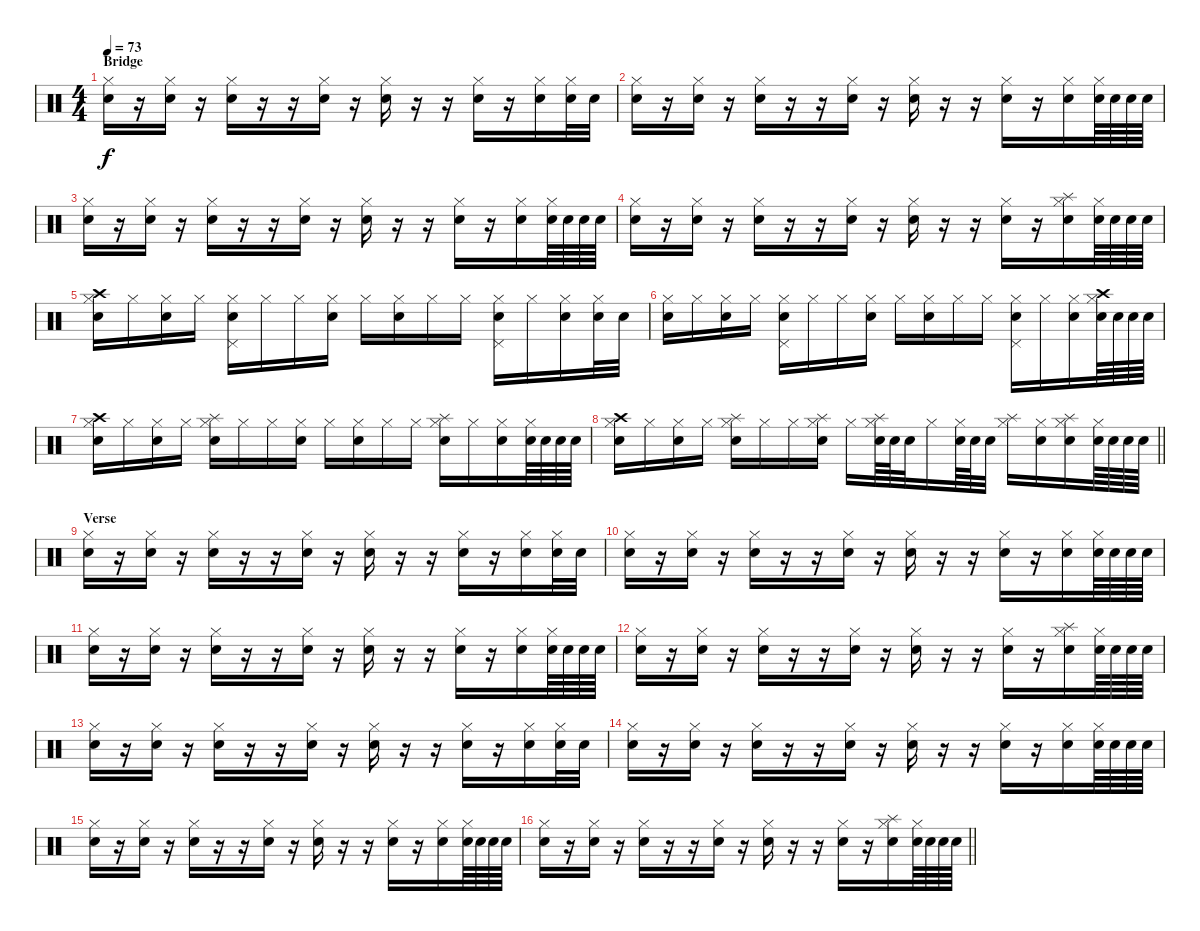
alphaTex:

\track "" {instrument percussion}
\staff {score}
\articulation defaults
\ts (4 4)
\section ("" "Bridge")
\tempo 73
\clef neutral
\ks c
("Hi-Hat (closed)" "Snare (hit) 2").16{dy f} r.16 ("Hi-Hat (closed)" "Snare (hit) 2").16 r.16 ("Hi-Hat (closed)" "Snare (hit) 2").16 r.16 r.16 ("Hi-Hat (closed)" "Snare (hit) 2").16 r.16 ("Hi-Hat (closed)" "Snare (hit) 2").16 r.16 r.16 ("Hi-Hat (closed)" "Snare (hit) 2").16 r.16 ("Hi-Hat (closed)" "Snare (hit) 2").16 ("Hi-Hat (closed)" "Snare (hit) 2").32 "Snare (hit) 2".32 |
("Hi-Hat (closed)" "Snare (hit) 2").16 r.16 ("Hi-Hat (closed)" "Snare (hit) 2").16 r.16 ("Hi-Hat (closed)" "Snare (hit) 2").16 r.16 r.16 ("Hi-Hat (closed)" "Snare (hit) 2").16 r.16 ("Hi-Hat (closed)" "Snare (hit) 2").16 r.16 r.16 ("Hi-Hat (closed)" "Snare (hit) 2").16 r.16 ("Hi-Hat (closed)" "Snare (hit) 2").16 ("Hi-Hat (closed)" "Snare (hit) 2").64 "Snare (hit) 2".64 "Snare (hit) 2".64 "Snare (hit) 2".64 |
("Hi-Hat (closed)" "Snare (hit) 2").16 r.16 ("Hi-Hat (closed)" "Snare (hit) 2").16 r.16 ("Hi-Hat (closed)" "Snare (hit) 2").16 r.16 r.16 ("Hi-Hat (closed)" "Snare (hit) 2").16 r.16 ("Hi-Hat (closed)" "Snare (hit) 2").16 r.16 r.16 ("Hi-Hat (closed)" "Snare (hit) 2").16 r.16 ("Hi-Hat (closed)" "Snare (hit) 2").16 ("Hi-Hat (closed)" "Snare (hit) 2").64 "Snare (hit) 2".64 "Snare (hit) 2".64 "Snare (hit) 2".64 |
("Hi-Hat (closed)" "Snare (hit) 2").16 r.16 ("Hi-Hat (closed)" "Snare (hit) 2").16 r.16 ("Hi-Hat (closed)" "Snare (hit) 2").16 r.16 r.16 ("Hi-Hat (closed)" "Snare (hit) 2").16 r.16 ("Hi-Hat (closed)" "Snare (hit) 2").16 r.16 r.16 ("Hi-Hat (closed)" "Snare (hit) 2").16 r.16 ("Splash (hit)" "Hi-Hat (closed)" "Snare (hit) 2").16 ("Hi-Hat (closed)" "Snare (hit) 2").64 "Snare (hit) 2".64 "Snare (hit) 2".64 "Snare (hit) 2".64 |
("Crash high (hit)" "Hi-Hat (closed)" "Snare (hit) 2").16 "Hi-Hat (closed)".16 ("Hi-Hat (closed)" "Snare (hit) 2").16 "Hi-Hat (closed)".16 ("Pedal Hi-Hat (hit)" "Hi-Hat (closed)" "Snare (hit) 2").16 "Hi-Hat (closed)".16 "Hi-Hat (closed)".16 ("Hi-Hat (closed)" "Snare (hit) 2").16 "Hi-Hat (closed)".16 ("Hi-Hat (closed)" "Snare (hit) 2").16 "Hi-Hat (closed)".16 "Hi-Hat (closed)".16 ("Pedal Hi-Hat (hit)" "Hi-Hat (closed)" "Snare (hit) 2").16 "Hi-Hat (closed)".16 ("Hi-Hat (closed)" "Snare (hit) 2").16 ("Hi-Hat (closed)" "Snare (hit) 2").32 "Snare (hit) 2".32 |
("Hi-Hat (closed)" "Snare (hit) 2").16 "Hi-Hat (closed)".16 ("Hi-Hat (closed)" "Snare (hit) 2").16 "Hi-Hat (closed)".16 ("Pedal Hi-Hat (hit)" "Hi-Hat (closed)" "Snare (hit) 2").16 "Hi-Hat (closed)".16 "Hi-Hat (closed)".16 ("Hi-Hat (closed)" "Snare (hit) 2").16 "Hi-Hat (closed)".16 ("Hi-Hat (closed)" "Snare (hit) 2").16 "Hi-Hat (closed)".16 "Hi-Hat (closed)".16 ("Pedal Hi-Hat (hit)" "Hi-Hat (closed)" "Snare (hit) 2").16 "Hi-Hat (closed)".16 ("Hi-Hat (closed)" "Snare (hit) 2").16 ("Crash high (hit)" "Hi-Hat (closed)" "Snare (hit) 2").64 "Snare (hit) 2".64 "Snare (hit) 2".64 "Snare (hit) 2".64 |
("Crash high (hit)" "Hi-Hat (closed)" "Snare (hit) 2").16 "Hi-Hat (closed)".16 ("Hi-Hat (closed)" "Snare (hit) 2").16 "Hi-Hat (closed)".16 ("Splash (hit)" "Hi-Hat (closed)" "Snare (hit) 2").16 "Hi-Hat (closed)".16 "Hi-Hat (closed)".16 ("Hi-Hat (closed)" "Snare (hit) 2").16 "Hi-Hat (closed)".16 ("Hi-Hat (closed)" "Snare (hit) 2").16 "Hi-Hat (closed)".16 "Hi-Hat (closed)".16 ("Splash (hit)" "Hi-Hat (closed)" "Snare (hit) 2").16 "Hi-Hat (closed)".16 ("Hi-Hat (closed)" "Snare (hit) 2").16 ("Hi-Hat (closed)" "Snare (hit) 2").64 "Snare (hit) 2".64 "Snare (hit) 2".64 "Snare (hit) 2".64 |
\barLineRight lightlight
("Crash high (hit)" "Hi-Hat (closed)" "Snare (hit) 2").16 "Hi-Hat (closed)".16 ("Hi-Hat (closed)" "Snare (hit) 2").16 "Hi-Hat (closed)".16 ("Splash (hit)" "Hi-Hat (closed)" "Snare (hit) 2").16 "Hi-Hat (closed)".16 "Hi-Hat (closed)".16 ("Splash (hit)" "Hi-Hat (closed)" "Snare (hit) 2").16 "Hi-Hat (closed)".16 ("Splash (hit)" "Hi-Hat (closed)" "Snare (hit) 2").64 "Snare (hit) 2".64 "Snare (hit) 2".32 "Hi-Hat (closed)".16 ("Hi-Hat (closed)" "Snare (hit) 2").64 "Snare (hit) 2".64 "Snare (hit) 2".32 ("Splash (hit)" "Hi-Hat (closed)").16 ("Hi-Hat (closed)" "Snare (hit) 2").16 ("Splash (hit)" "Hi-Hat (closed)" "Snare (hit) 2").16 ("Hi-Hat (closed)" "Snare (hit) 2").64 "Snare (hit) 2".64 "Snare (hit) 2".64 "Snare (hit) 2".64 |
\section ("" "Verse")
("Hi-Hat (closed)" "Snare (hit) 2").16 r.16 ("Hi-Hat (closed)" "Snare (hit) 2").16 r.16 ("Hi-Hat (closed)" "Snare (hit) 2").16 r.16 r.16 ("Hi-Hat (closed)" "Snare (hit) 2").16 r.16 ("Hi-Hat (closed)" "Snare (hit) 2").16 r.16 r.16 ("Hi-Hat (closed)" "Snare (hit) 2").16 r.16 ("Hi-Hat (closed)" "Snare (hit) 2").16 ("Hi-Hat (closed)" "Snare (hit) 2").32 "Snare (hit) 2".32 |
("Hi-Hat (closed)" "Snare (hit) 2").16 r.16 ("Hi-Hat (closed)" "Snare (hit) 2").16 r.16 ("Hi-Hat (closed)" "Snare (hit) 2").16 r.16 r.16 ("Hi-Hat (closed)" "Snare (hit) 2").16 r.16 ("Hi-Hat (closed)" "Snare (hit) 2").16 r.16 r.16 ("Hi-Hat (closed)" "Snare (hit) 2").16 r.16 ("Hi-Hat (closed)" "Snare (hit) 2").16 ("Hi-Hat (closed)" "Snare (hit) 2").64 "Snare (hit) 2".64 "Snare (hit) 2".64 "Snare (hit) 2".64 |
("Hi-Hat (closed)" "Snare (hit) 2").16 r.16 ("Hi-Hat (closed)" "Snare (hit) 2").16 r.16 ("Hi-Hat (closed)" "Snare (hit) 2").16 r.16 r.16 ("Hi-Hat (closed)" "Snare (hit) 2").16 r.16 ("Hi-Hat (closed)" "Snare (hit) 2").16 r.16 r.16 ("Hi-Hat (closed)" "Snare (hit) 2").16 r.16 ("Hi-Hat (closed)" "Snare (hit) 2").16 ("Hi-Hat (closed)" "Snare (hit) 2").64 "Snare (hit) 2".64 "Snare (hit) 2".64 "Snare (hit) 2".64 |
("Hi-Hat (closed)" "Snare (hit) 2").16 r.16 ("Hi-Hat (closed)" "Snare (hit) 2").16 r.16 ("Hi-Hat (closed)" "Snare (hit) 2").16 r.16 r.16 ("Hi-Hat (closed)" "Snare (hit) 2").16 r.16 ("Hi-Hat (closed)" "Snare (hit) 2").16 r.16 r.16 ("Hi-Hat (closed)" "Snare (hit) 2").16 r.16 ("Splash (hit)" "Hi-Hat (closed)" "Snare (hit) 2").16 ("Hi-Hat (closed)" "Snare (hit) 2").64 "Snare (hit) 2".64 "Snare (hit) 2".64 "Snare (hit) 2".64 |
("Hi-Hat (closed)" "Snare (hit) 2").16 r.16 ("Hi-Hat (closed)" "Snare (hit) 2").16 r.16 ("Hi-Hat (closed)" "Snare (hit) 2").16 r.16 r.16 ("Hi-Hat (closed)" "Snare (hit) 2").16 r.16 ("Hi-Hat (closed)" "Snare (hit) 2").16 r.16 r.16 ("Hi-Hat (closed)" "Snare (hit) 2").16 r.16 ("Hi-Hat (closed)" "Snare (hit) 2").16 ("Hi-Hat (closed)" "Snare (hit) 2").32 "Snare (hit) 2".32 |
("Hi-Hat (closed)" "Snare (hit) 2").16 r.16 ("Hi-Hat (closed)" "Snare (hit) 2").16 r.16 ("Hi-Hat (closed)" "Snare (hit) 2").16 r.16 r.16 ("Hi-Hat (closed)" "Snare (hit) 2").16 r.16 ("Hi-Hat (closed)" "Snare (hit) 2").16 r.16 r.16 ("Hi-Hat (closed)" "Snare (hit) 2").16 r.16 ("Hi-Hat (closed)" "Snare (hit) 2").16 ("Hi-Hat (closed)" "Snare (hit) 2").64 "Snare (hit) 2".64 "Snare (hit) 2".64 "Snare (hit) 2".64 |
("Hi-Hat (closed)" "Snare (hit) 2").16 r.16 ("Hi-Hat (closed)" "Snare (hit) 2").16 r.16 ("Hi-Hat (closed)" "Snare (hit) 2").16 r.16 r.16 ("Hi-Hat (closed)" "Snare (hit) 2").16 r.16 ("Hi-Hat (closed)" "Snare (hit) 2").16 r.16 r.16 ("Hi-Hat (closed)" "Snare (hit) 2").16 r.16 ("Hi-Hat (closed)" "Snare (hit) 2").16 ("Hi-Hat (closed)" "Snare (hit) 2").64 "Snare (hit) 2".64 "Snare (hit) 2".64 "Snare (hit) 2".64 |
\barLineRight lightlight
("Hi-Hat (closed)" "Snare (hit) 2").16 r.16 ("Hi-Hat (closed)" "Snare (hit) 2").16 r.16 ("Hi-Hat (closed)" "Snare (hit) 2").16 r.16 r.16 ("Hi-Hat (closed)" "Snare (hit) 2").16 r.16 ("Hi-Hat (closed)" "Snare (hit) 2").16 r.16 r.16 ("Hi-Hat (closed)" "Snare (hit) 2").16 r.16 ("Splash (hit)" "Hi-Hat (closed)" "Snare (hit) 2").16 ("Hi-Hat (closed)" "Snare (hit) 2").64 "Snare (hit) 2".64 "Snare (hit) 2".64 "Snare (hit) 2".64
